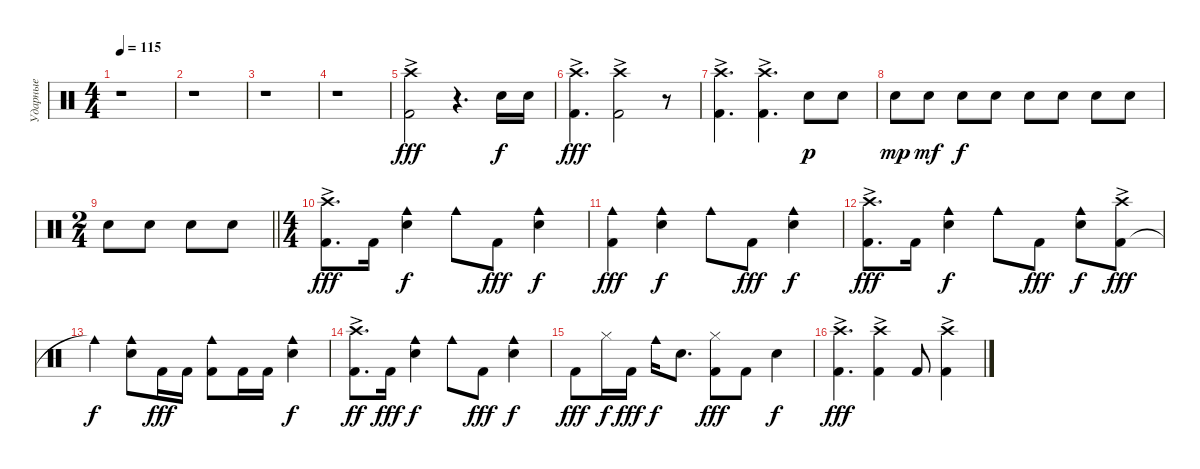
\track ("Ударные" "Ударные") {instrument percussion}
\staff {score}
\articulation defaults
\ts (4 4)
\tempo 115
\clef neutral
\ks c
r.1{dy fff} |
r.1 |
r.1 |
r.1 |
("Kick (hit) 2" "Crash high (hit)"{ac}).2 r.4{d} "Snare (hit) 2".16{dy f} "Electric Snare (hit)".16 |
("Kick (hit) 2" "Crash high (hit)"{ac}).4{d dy fff} ("Kick (hit) 2" "Crash high (hit)"{ac}).2 r.8 |
("Kick (hit) 2" "Crash high (hit)"{ac}).4{d} ("Kick (hit) 2" "Crash high (hit)"{ac}).4{d} "Snare (hit) 2".8{dy p} "Snare (hit) 2".8 |
"Snare (hit) 2".8{dy mp} "Snare (hit) 2".8{dy mf} "Snare (hit) 2".8{dy f} "Snare (hit) 2".8 "Snare (hit) 2".8 "Snare (hit) 2".8 "Snare (hit) 2".8 "Snare (hit) 2".8 |
\ts (2 4)
\barLineRight lightlight "Snare (hit) 2".8 "Snare (hit) 2".8 "Snare (hit) 2".8 "Snare (hit) 2".8
|
\ts (4 4)
("Kick (hit) 2" "Crash high (hit)"{ac}).8{d dy fff} "Kick (hit) 2".16 ("Snare (hit) 2" "Cowbell medium (hit)").4{dy f} "Cowbell medium (hit)".8 "Kick (hit) 2".8{dy fff} ("Snare (hit) 2" "Cowbell medium (hit)").4{dy f} |
("Kick (hit) 2" "Cowbell medium (hit)").4{dy fff} ("Snare (hit) 2" "Cowbell medium (hit)").4{dy f} "Cowbell medium (hit)".8 "Kick (hit) 2".8{dy fff} ("Snare (hit) 2" "Cowbell medium (hit)").4{dy f} |
("Kick (hit) 2" "Crash high (hit)"{ac}).8{d dy fff} "Kick (hit) 2".16 ("Snare (hit) 2" "Cowbell medium (hit)").4{dy f} "Cowbell medium (hit)".8 "Kick (hit) 2".8{dy fff} ("Snare (hit) 2" "Cowbell medium (hit)").8{dy f} ("Kick (hit) 2" "Crash high (hit)"{ac}).8{dy fff} |
"Cowbell medium (hit)"{t}.4{dy f} ("Snare (hit) 2" "Cowbell medium (hit)").8 "Kick (hit) 2".16{dy fff} "Kick (hit) 2".16 ("Kick (hit) 2" "Cowbell medium (hit)").8 "Kick (hit) 2".16 "Kick (hit) 2".16 ("Snare (hit) 2" "Cowbell medium (hit)").4{dy f} |
("Kick (hit) 2" "Crash high (hit)"{ac}).8{d dy ff} "Kick (hit) 2".16{dy fff} ("Snare (hit) 2" "Cowbell medium (hit)").4{dy f} "Cowbell medium (hit)".8 "Kick (hit) 2".8{dy fff} ("Snare (hit) 2" "Cowbell medium (hit)").4{dy f} |
"Kick (hit) 2".8{dy fff} "Hi-Hat (closed)".16{dy f} "Kick (hit) 2".16{dy fff} "Cowbell medium (hit)".16{dy f} "Snare (hit) 2".8{d} ("Kick (hit) 2" "Hi-Hat (closed)").8{dy fff} "Kick (hit) 2".8 "Snare (hit) 2".4{dy f} |
("Kick (hit) 2"{ac} "Crash high (hit)"{ac}).4{d dy fff} ("Kick (hit) 2" "Crash high (hit)"{ac}).4 "Kick (hit) 2".8 ("Kick (hit) 2" "Crash high (hit)"{ac}).4
